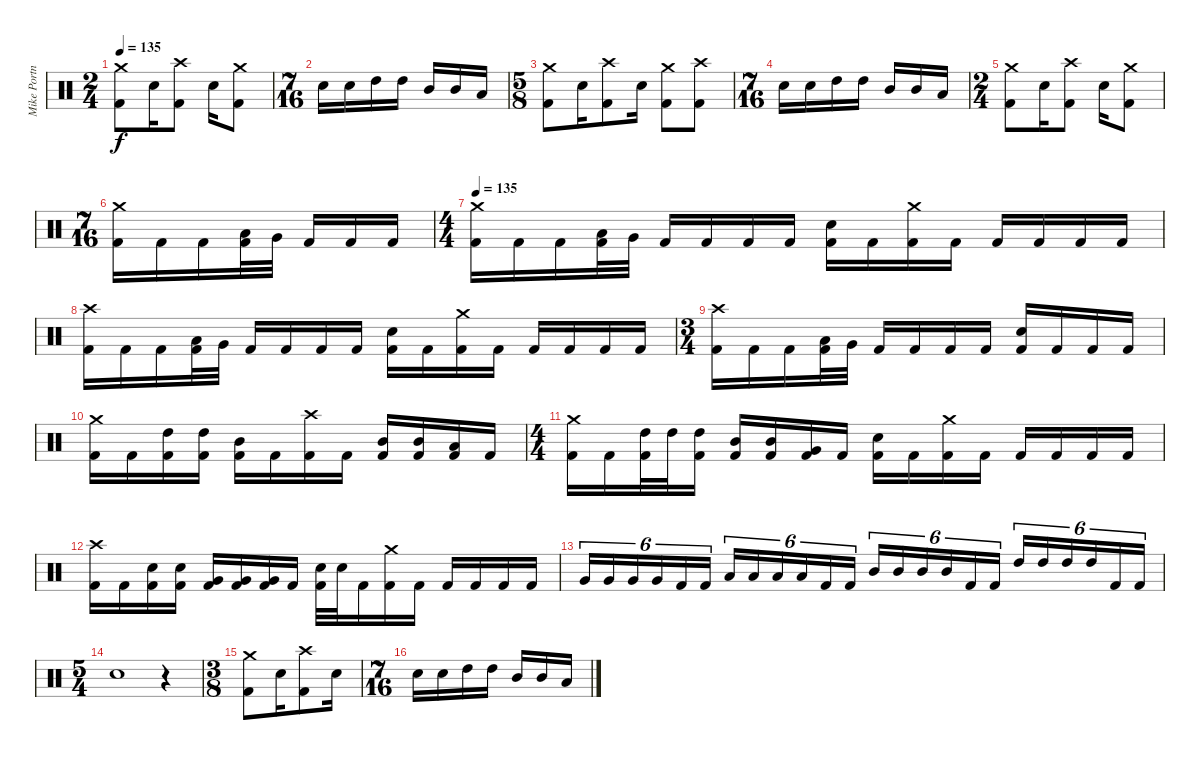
\track ("Mike Portnoy Drums" "Mike Portn") {instrument percussion}
\staff {score}
\articulation defaults
\ts (2 4)
\tempo 135
\clef neutral
\ks c
("Crash medium (hit)" "Kick (hit) 2").8{dy f} "Snare (hit) 2".16 ("Crash high (hit)" "Kick (hit) 2").8 "Snare (hit) 2".16 ("Crash medium (hit)" "Kick (hit) 2").8 |
\ts (7 16)
"Snare (hit) 2".16 "Snare (hit) 2".16 "High Tom (hit)".16 "High Tom (hit)".16 "Mid Tom (hit)".16 "Mid Tom (hit)".16 "Low Tom (hit)".16 |
\ts (5 8)
("Crash medium (hit)" "Kick (hit) 2").8 "Snare (hit) 2".16 ("Crash high (hit)" "Kick (hit) 2").8 "Snare (hit) 2".16 ("Crash medium (hit)" "Kick (hit) 2").8 ("Crash high (hit)" "Kick (hit) 2").8 |
\ts (7 16)
"Snare (hit) 2".16 "Snare (hit) 2".16 "High Tom (hit)".16 "High Tom (hit)".16 "Mid Tom (hit)".16 "Mid Tom (hit)".16 "Low Tom (hit)".16 |
\ts (2 4)
("Crash medium (hit)" "Kick (hit) 2").8 "Snare (hit) 2".16 ("Crash high (hit)" "Kick (hit) 2").8 "Snare (hit) 2".16 ("Crash medium (hit)" "Kick (hit) 2").8 |
\ts (7 16)
("Crash medium (hit)" "Kick (hit) 2").16 "Kick (hit) 2".16 "Kick (hit) 2".16 ("Low Tom (hit)" "Kick (hit) 2").32 "Very Low Tom (hit)".32 "Kick (hit) 2".16 "Kick (hit) 2".16 "Kick (hit) 2".16 |
\ts (4 4)
\tempo 135
("Crash medium (hit)" "Kick (hit) 2").16 "Kick (hit) 2".16 "Kick (hit) 2".16 ("Low Tom (hit)" "Kick (hit) 2").32 "Very Low Tom (hit)".32 "Kick (hit) 2".16 "Kick (hit) 2".16 "Kick (hit) 2".16 "Kick (hit) 2".16 ("Snare (hit) 2" "Kick (hit) 2").16 "Kick (hit) 2".16 ("Crash medium (hit)" "Kick (hit) 2").16 "Kick (hit) 2".16 "Kick (hit) 2".16 "Kick (hit) 2".16 "Kick (hit) 2".16 "Kick (hit) 2".16 |
("Crash high (hit)" "Kick (hit) 2").16 "Kick (hit) 2".16 "Kick (hit) 2".16 ("Low Tom (hit)" "Kick (hit) 2").32 "Very Low Tom (hit)".32 "Kick (hit) 2".16 "Kick (hit) 2".16 "Kick (hit) 2".16 "Kick (hit) 2".16 ("Snare (hit) 2" "Kick (hit) 2").16 "Kick (hit) 2".16 ("Crash medium (hit)" "Kick (hit) 2").16 "Kick (hit) 2".16 "Kick (hit) 2".16 "Kick (hit) 2".16 "Kick (hit) 2".16 "Kick (hit) 2".16 |
\ts (3 4)
("Crash high (hit)" "Kick (hit) 2").16 "Kick (hit) 2".16 "Kick (hit) 2".16 ("Low Tom (hit)" "Kick (hit) 2").32 "Very Low Tom (hit)".32 "Kick (hit) 2".16 "Kick (hit) 2".16 "Kick (hit) 2".16 "Kick (hit) 2".16 ("Snare (hit) 2" "Kick (hit) 2").16 "Kick (hit) 2".16 "Kick (hit) 2".16 "Kick (hit) 2".16 |
("Crash medium (hit)" "Kick (hit) 2").16 "Kick (hit) 2".16 ("High Tom (hit)" "Kick (hit) 2").16 ("High Tom (hit)" "Kick (hit) 2").16 ("Mid Tom (hit)" "Kick (hit) 2").16 "Kick (hit) 2".16 ("Crash high (hit)" "Kick (hit) 2").16 "Kick (hit) 2".16 ("Mid Tom (hit)" "Kick (hit) 2").16 ("Mid Tom (hit)" "Kick (hit) 2").16 ("Low Floor Tom (hit)" "Kick (hit) 2").16 "Kick (hit) 2".16 |
\ts (4 4)
("Crash medium (hit)" "Kick (hit) 2").16 "Kick (hit) 2".16 ("High Tom (hit)" "Kick (hit) 2").32 "High Tom (hit)".32 ("High Tom (hit)" "Kick (hit) 2").16 ("Mid Tom (hit)" "Kick (hit) 2").16 ("Mid Tom (hit)" "Kick (hit) 2").16 ("Very Low Tom (hit)" "Kick (hit) 2").16 "Kick (hit) 2".16 ("Snare (hit) 2" "Kick (hit) 2").16 "Kick (hit) 2".16 ("Crash medium (hit)" "Kick (hit) 2").16 "Kick (hit) 2".16 "Kick (hit) 2".16 "Kick (hit) 2".16 "Kick (hit) 2".16 "Kick (hit) 2".16 |
("Crash high (hit)" "Kick (hit) 2").16 "Kick (hit) 2".16 ("Snare (hit) 2" "Kick (hit) 2").16 ("Snare (hit) 2" "Kick (hit) 2").16 ("Very Low Tom (hit)" "Kick (hit) 2").16 ("Very Low Tom (hit)" "Kick (hit) 2").16 ("Very Low Tom (hit)" "Kick (hit) 2").16 "Kick (hit) 2".16 ("Snare (hit) 2" "Kick (hit) 2").32 "Snare (hit) 2".32 "Kick (hit) 2".16 ("Crash medium (hit)" "Kick (hit) 2").16 "Kick (hit) 2".16 "Kick (hit) 2".16 "Kick (hit) 2".16 "Kick (hit) 2".16 "Kick (hit) 2".16 |
"Very Low Tom (hit)".16{tu (6 4)} "Very Low Tom (hit)".16{tu (6 4)} "Very Low Tom (hit)".16{tu (6 4)} "Very Low Tom (hit)".16{tu (6 4)} "Kick (hit) 2".16{tu (6 4)} "Kick (hit) 2".16{tu (6 4)} "Low Tom (hit)".16{tu (6 4)} "Low Tom (hit)".16{tu (6 4)} "Low Tom (hit)".16{tu (6 4)} "Low Tom (hit)".16{tu (6 4)} "Kick (hit) 2".16{tu (6 4)} "Kick (hit) 2".16{tu (6 4)} "Mid Tom (hit)".16{tu (6 4)} "Mid Tom (hit)".16{tu (6 4)} "Mid Tom (hit)".16{tu (6 4)} "Mid Tom (hit)".16{tu (6 4)} "Kick (hit) 2".16{tu (6 4)} "Kick (hit) 2".16{tu (6 4)} "High Tom (hit)".16{tu (6 4)} "High Tom (hit)".16{tu (6 4)} "High Tom (hit)".16{tu (6 4)} "High Tom (hit)".16{tu (6 4)} "Kick (hit) 2".16{tu (6 4)} "Kick (hit) 2".16{tu (6 4)} |
\ts (5 4)
"Snare (hit) 2".1 r.4 |
\ts (3 8)
("Crash medium (hit)" "Kick (hit) 2").8 "Snare (hit) 2".16 ("Crash high (hit)" "Kick (hit) 2").8 "Snare (hit) 2".16 |
\ts (7 16)
"Snare (hit) 2".16 "Snare (hit) 2".16 "High Tom (hit)".16 "High Tom (hit)".16 "Mid Tom (hit)".16 "Mid Tom (hit)".16 "Low Tom (hit)".16
